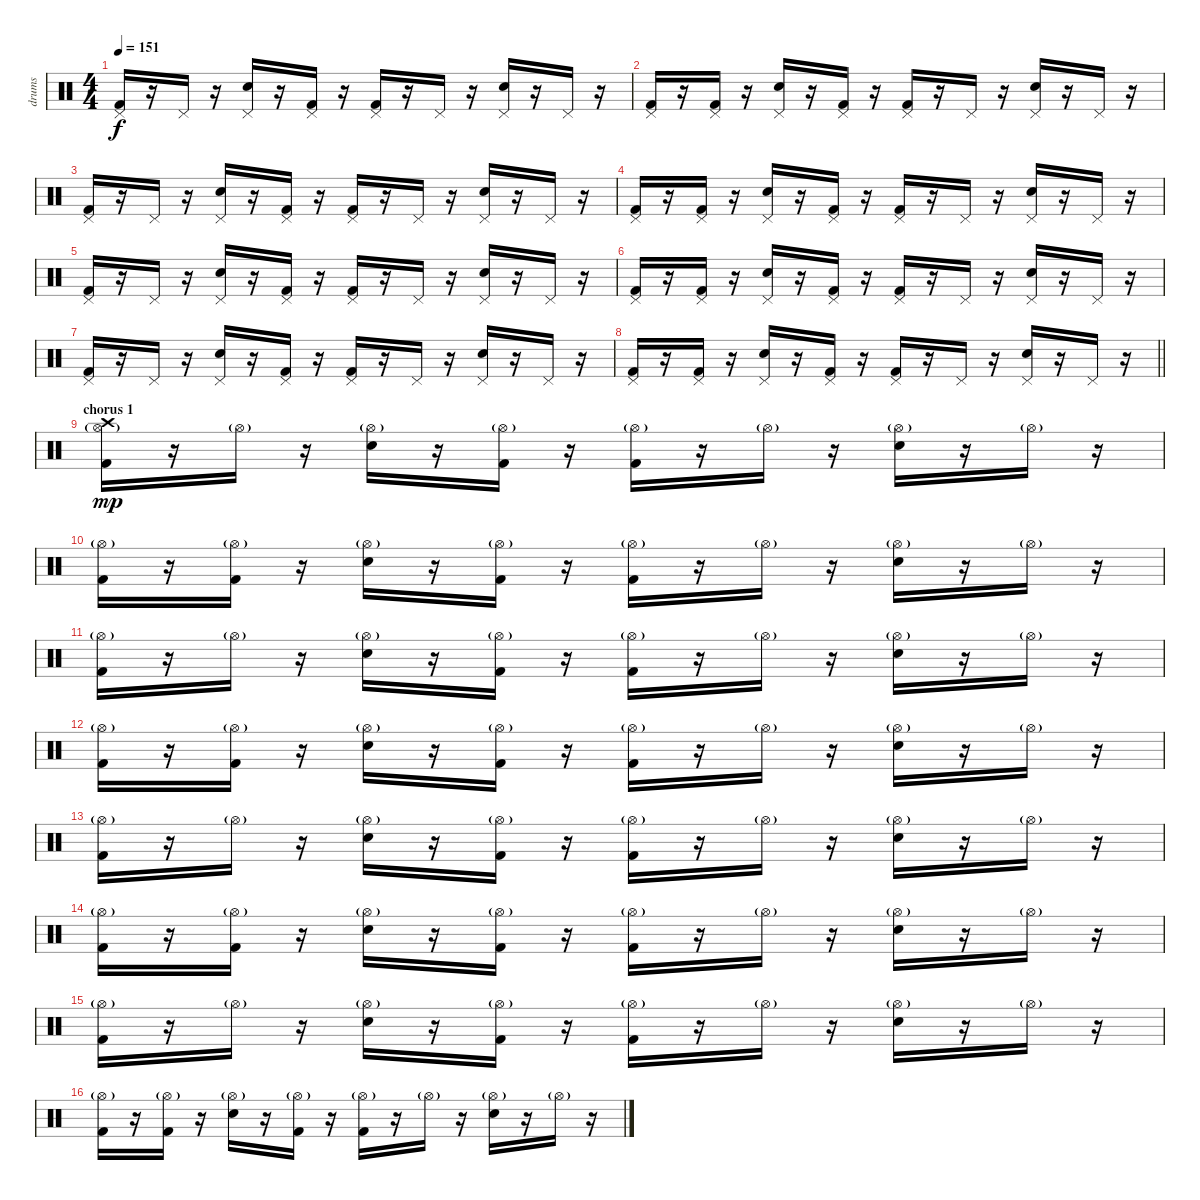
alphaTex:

\track ("drums" "drums") {instrument percussion}
\staff {score}
\articulation defaults
\ts (4 4)
\tempo 151
\clef neutral
\ks c
("Kick (hit) 2" "Pedal Hi-Hat (hit)").16{dy f} r.16 "Pedal Hi-Hat (hit)".16 r.16 ("Electric Snare (hit)" "Pedal Hi-Hat (hit)").16 r.16 ("Kick (hit) 2" "Pedal Hi-Hat (hit)").16 r.16 ("Kick (hit) 2" "Pedal Hi-Hat (hit)").16 r.16 "Pedal Hi-Hat (hit)".16 r.16 ("Electric Snare (hit)" "Pedal Hi-Hat (hit)").16 r.16 "Pedal Hi-Hat (hit)".16 r.16 |
("Kick (hit) 2" "Pedal Hi-Hat (hit)").16 r.16 ("Kick (hit) 2" "Pedal Hi-Hat (hit)").16 r.16 ("Electric Snare (hit)" "Pedal Hi-Hat (hit)").16 r.16 ("Kick (hit) 2" "Pedal Hi-Hat (hit)").16 r.16 ("Kick (hit) 2" "Pedal Hi-Hat (hit)").16 r.16 "Pedal Hi-Hat (hit)".16 r.16 ("Electric Snare (hit)" "Pedal Hi-Hat (hit)").16 r.16 "Pedal Hi-Hat (hit)".16 r.16 |
("Kick (hit) 2" "Pedal Hi-Hat (hit)").16 r.16 "Pedal Hi-Hat (hit)".16 r.16 ("Electric Snare (hit)" "Pedal Hi-Hat (hit)").16 r.16 ("Kick (hit) 2" "Pedal Hi-Hat (hit)").16 r.16 ("Kick (hit) 2" "Pedal Hi-Hat (hit)").16 r.16 "Pedal Hi-Hat (hit)".16 r.16 ("Electric Snare (hit)" "Pedal Hi-Hat (hit)").16 r.16 "Pedal Hi-Hat (hit)".16 r.16 |
("Kick (hit) 2" "Pedal Hi-Hat (hit)").16 r.16 ("Kick (hit) 2" "Pedal Hi-Hat (hit)").16 r.16 ("Electric Snare (hit)" "Pedal Hi-Hat (hit)").16 r.16 ("Kick (hit) 2" "Pedal Hi-Hat (hit)").16 r.16 ("Kick (hit) 2" "Pedal Hi-Hat (hit)").16 r.16 "Pedal Hi-Hat (hit)".16 r.16 ("Electric Snare (hit)" "Pedal Hi-Hat (hit)").16 r.16 "Pedal Hi-Hat (hit)".16 r.16 |
("Kick (hit) 2" "Pedal Hi-Hat (hit)").16 r.16 "Pedal Hi-Hat (hit)".16 r.16 ("Electric Snare (hit)" "Pedal Hi-Hat (hit)").16 r.16 ("Kick (hit) 2" "Pedal Hi-Hat (hit)").16 r.16 ("Kick (hit) 2" "Pedal Hi-Hat (hit)").16 r.16 "Pedal Hi-Hat (hit)".16 r.16 ("Electric Snare (hit)" "Pedal Hi-Hat (hit)").16 r.16 "Pedal Hi-Hat (hit)".16 r.16 |
("Kick (hit) 2" "Pedal Hi-Hat (hit)").16 r.16 ("Kick (hit) 2" "Pedal Hi-Hat (hit)").16 r.16 ("Electric Snare (hit)" "Pedal Hi-Hat (hit)").16 r.16 ("Kick (hit) 2" "Pedal Hi-Hat (hit)").16 r.16 ("Kick (hit) 2" "Pedal Hi-Hat (hit)").16 r.16 "Pedal Hi-Hat (hit)".16 r.16 ("Electric Snare (hit)" "Pedal Hi-Hat (hit)").16 r.16 "Pedal Hi-Hat (hit)".16 r.16 |
("Kick (hit) 2" "Pedal Hi-Hat (hit)").16 r.16 "Pedal Hi-Hat (hit)".16 r.16 ("Electric Snare (hit)" "Pedal Hi-Hat (hit)").16 r.16 ("Kick (hit) 2" "Pedal Hi-Hat (hit)").16 r.16 ("Kick (hit) 2" "Pedal Hi-Hat (hit)").16 r.16 "Pedal Hi-Hat (hit)".16 r.16 ("Electric Snare (hit)" "Pedal Hi-Hat (hit)").16 r.16 "Pedal Hi-Hat (hit)".16 r.16 |
\barLineRight lightlight
("Kick (hit) 2" "Pedal Hi-Hat (hit)").16 r.16 ("Kick (hit) 2" "Pedal Hi-Hat (hit)").16 r.16 ("Electric Snare (hit)" "Pedal Hi-Hat (hit)").16 r.16 ("Kick (hit) 2" "Pedal Hi-Hat (hit)").16 r.16 ("Kick (hit) 2" "Pedal Hi-Hat (hit)").16 r.16 "Pedal Hi-Hat (hit)".16 r.16 ("Electric Snare (hit)" "Pedal Hi-Hat (hit)").16 r.16 "Pedal Hi-Hat (hit)".16 r.16 |
\section ("" "chorus 1")
("Kick (hit) 2" "Hi-Hat (open)"{g} "Crash high (hit)").16{dy mp} r.16 "Hi-Hat (open)"{g}.16 r.16 ("Electric Snare (hit)" "Hi-Hat (open)"{g}).16 r.16 ("Kick (hit) 2" "Hi-Hat (open)"{g}).16 r.16 ("Kick (hit) 2" "Hi-Hat (open)"{g}).16 r.16 "Hi-Hat (open)"{g}.16 r.16 ("Electric Snare (hit)" "Hi-Hat (open)"{g}).16 r.16 "Hi-Hat (open)"{g}.16 r.16 |
("Kick (hit) 2" "Hi-Hat (open)"{g}).16 r.16 ("Kick (hit) 2" "Hi-Hat (open)"{g}).16 r.16 ("Electric Snare (hit)" "Hi-Hat (open)"{g}).16 r.16 ("Kick (hit) 2" "Hi-Hat (open)"{g}).16 r.16 ("Kick (hit) 2" "Hi-Hat (open)"{g}).16 r.16 "Hi-Hat (open)"{g}.16 r.16 ("Electric Snare (hit)" "Hi-Hat (open)"{g}).16 r.16 "Hi-Hat (open)"{g}.16 r.16 |
("Kick (hit) 2" "Hi-Hat (open)"{g}).16 r.16 "Hi-Hat (open)"{g}.16 r.16 ("Electric Snare (hit)" "Hi-Hat (open)"{g}).16 r.16 ("Kick (hit) 2" "Hi-Hat (open)"{g}).16 r.16 ("Kick (hit) 2" "Hi-Hat (open)"{g}).16 r.16 "Hi-Hat (open)"{g}.16 r.16 ("Electric Snare (hit)" "Hi-Hat (open)"{g}).16 r.16 "Hi-Hat (open)"{g}.16 r.16 |
("Kick (hit) 2" "Hi-Hat (open)"{g}).16 r.16 ("Kick (hit) 2" "Hi-Hat (open)"{g}).16 r.16 ("Electric Snare (hit)" "Hi-Hat (open)"{g}).16 r.16 ("Kick (hit) 2" "Hi-Hat (open)"{g}).16 r.16 ("Kick (hit) 2" "Hi-Hat (open)"{g}).16 r.16 "Hi-Hat (open)"{g}.16 r.16 ("Electric Snare (hit)" "Hi-Hat (open)"{g}).16 r.16 "Hi-Hat (open)"{g}.16 r.16 |
("Kick (hit) 2" "Hi-Hat (open)"{g}).16 r.16 "Hi-Hat (open)"{g}.16 r.16 ("Electric Snare (hit)" "Hi-Hat (open)"{g}).16 r.16 ("Kick (hit) 2" "Hi-Hat (open)"{g}).16 r.16 ("Kick (hit) 2" "Hi-Hat (open)"{g}).16 r.16 "Hi-Hat (open)"{g}.16 r.16 ("Electric Snare (hit)" "Hi-Hat (open)"{g}).16 r.16 "Hi-Hat (open)"{g}.16 r.16 |
("Kick (hit) 2" "Hi-Hat (open)"{g}).16 r.16 ("Kick (hit) 2" "Hi-Hat (open)"{g}).16 r.16 ("Electric Snare (hit)" "Hi-Hat (open)"{g}).16 r.16 ("Kick (hit) 2" "Hi-Hat (open)"{g}).16 r.16 ("Kick (hit) 2" "Hi-Hat (open)"{g}).16 r.16 "Hi-Hat (open)"{g}.16 r.16 ("Electric Snare (hit)" "Hi-Hat (open)"{g}).16 r.16 "Hi-Hat (open)"{g}.16 r.16 |
("Kick (hit) 2" "Hi-Hat (open)"{g}).16 r.16 "Hi-Hat (open)"{g}.16 r.16 ("Electric Snare (hit)" "Hi-Hat (open)"{g}).16 r.16 ("Kick (hit) 2" "Hi-Hat (open)"{g}).16 r.16 ("Kick (hit) 2" "Hi-Hat (open)"{g}).16 r.16 "Hi-Hat (open)"{g}.16 r.16 ("Electric Snare (hit)" "Hi-Hat (open)"{g}).16 r.16 "Hi-Hat (open)"{g}.16 r.16 |
("Kick (hit) 2" "Hi-Hat (open)"{g}).16 r.16 ("Kick (hit) 2" "Hi-Hat (open)"{g}).16 r.16 ("Electric Snare (hit)" "Hi-Hat (open)"{g}).16 r.16 ("Kick (hit) 2" "Hi-Hat (open)"{g}).16 r.16 ("Kick (hit) 2" "Hi-Hat (open)"{g}).16 r.16 "Hi-Hat (open)"{g}.16 r.16 ("Electric Snare (hit)" "Hi-Hat (open)"{g}).16 r.16 "Hi-Hat (open)"{g}.16 r.16
